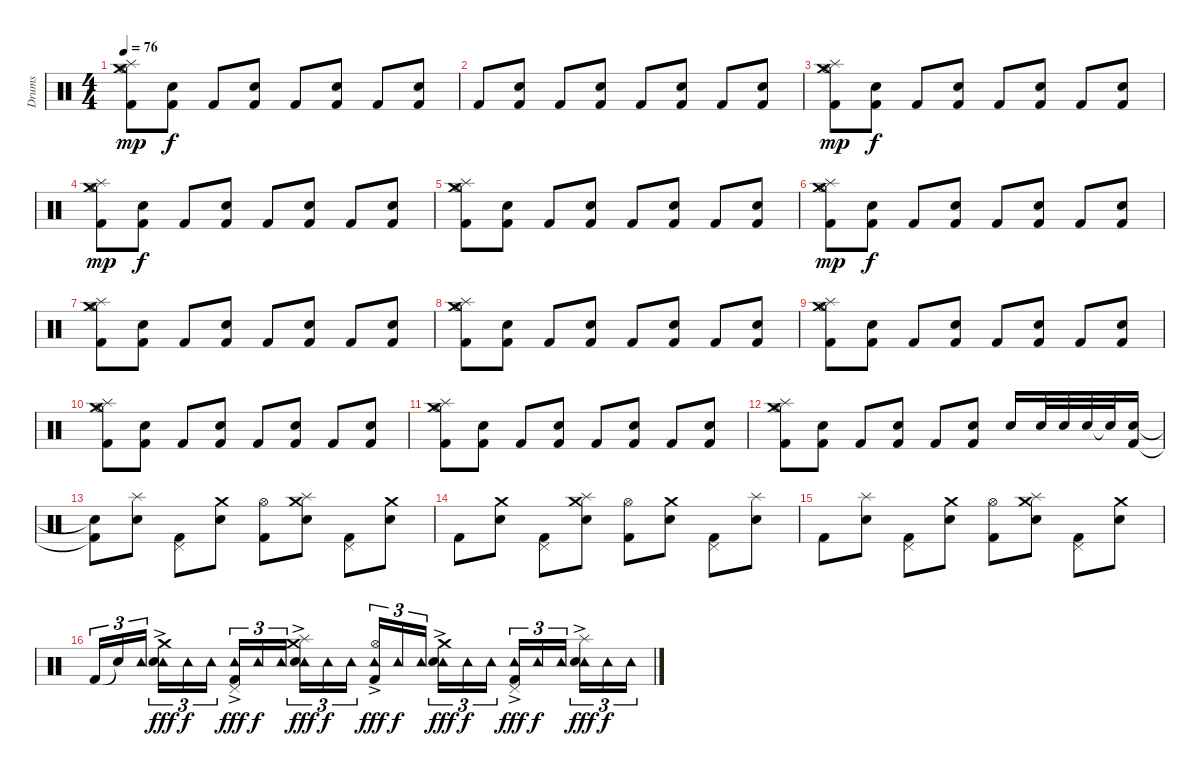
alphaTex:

\track ("Drums" "Drums") {instrument percussion}
\staff {score}
\articulation defaults
\ts (4 4)
\tempo 76
\clef neutral
\ks c
("Kick (hit) 2" "Splash (hit)" "Crash medium (hit)" "Hi-Hat (open)").8{dy mp} ("Kick (hit) 2" "Snare (hit) 2").8{dy f} "Kick (hit) 2".8 ("Kick (hit) 2" "Snare (hit) 2").8 "Kick (hit) 2".8 ("Kick (hit) 2" "Snare (hit) 2").8 "Kick (hit) 2".8 ("Kick (hit) 2" "Snare (hit) 2").8 |
"Kick (hit) 2".8 ("Kick (hit) 2" "Snare (hit) 2").8 "Kick (hit) 2".8 ("Kick (hit) 2" "Snare (hit) 2").8 "Kick (hit) 2".8 ("Kick (hit) 2" "Snare (hit) 2").8 "Kick (hit) 2".8 ("Kick (hit) 2" "Snare (hit) 2").8 |
("Kick (hit) 2" "Splash (hit)" "Crash medium (hit)" "Hi-Hat (open)").8{dy mp} ("Kick (hit) 2" "Snare (hit) 2").8{dy f} "Kick (hit) 2".8 ("Kick (hit) 2" "Snare (hit) 2").8 "Kick (hit) 2".8 ("Kick (hit) 2" "Snare (hit) 2").8 "Kick (hit) 2".8 ("Kick (hit) 2" "Snare (hit) 2").8 |
("Kick (hit) 2" "Splash (hit)" "Crash medium (hit)" "Hi-Hat (open)").8{dy mp} ("Kick (hit) 2" "Snare (hit) 2").8{dy f} "Kick (hit) 2".8 ("Kick (hit) 2" "Snare (hit) 2").8 "Kick (hit) 2".8 ("Kick (hit) 2" "Snare (hit) 2").8 "Kick (hit) 2".8 ("Kick (hit) 2" "Snare (hit) 2").8 |
("Kick (hit) 2" "Splash (hit)" "Crash medium (hit)" "Hi-Hat (open)").8 ("Kick (hit) 2" "Snare (hit) 2").8 "Kick (hit) 2".8 ("Kick (hit) 2" "Snare (hit) 2").8 "Kick (hit) 2".8 ("Kick (hit) 2" "Snare (hit) 2").8 "Kick (hit) 2".8 ("Kick (hit) 2" "Snare (hit) 2").8 |
("Kick (hit) 2" "Splash (hit)" "Crash medium (hit)" "Hi-Hat (open)").8{dy mp} ("Kick (hit) 2" "Snare (hit) 2").8{dy f} "Kick (hit) 2".8 ("Kick (hit) 2" "Snare (hit) 2").8 "Kick (hit) 2".8 ("Kick (hit) 2" "Snare (hit) 2").8 "Kick (hit) 2".8 ("Kick (hit) 2" "Snare (hit) 2").8 |
("Kick (hit) 2" "Splash (hit)" "Crash medium (hit)" "Hi-Hat (open)").8 ("Kick (hit) 2" "Snare (hit) 2").8 "Kick (hit) 2".8 ("Kick (hit) 2" "Snare (hit) 2").8 "Kick (hit) 2".8 ("Kick (hit) 2" "Snare (hit) 2").8 "Kick (hit) 2".8 ("Kick (hit) 2" "Snare (hit) 2").8 |
("Kick (hit) 2" "Splash (hit)" "Crash medium (hit)" "Hi-Hat (open)").8 ("Kick (hit) 2" "Snare (hit) 2").8 "Kick (hit) 2".8 ("Kick (hit) 2" "Snare (hit) 2").8 "Kick (hit) 2".8 ("Kick (hit) 2" "Snare (hit) 2").8 "Kick (hit) 2".8 ("Kick (hit) 2" "Snare (hit) 2").8 |
("Kick (hit) 2" "Splash (hit)" "Crash medium (hit)" "Hi-Hat (open)").8 ("Kick (hit) 2" "Snare (hit) 2").8 "Kick (hit) 2".8 ("Kick (hit) 2" "Snare (hit) 2").8 "Kick (hit) 2".8 ("Kick (hit) 2" "Snare (hit) 2").8 "Kick (hit) 2".8 ("Kick (hit) 2" "Snare (hit) 2").8 |
("Kick (hit) 2" "Splash (hit)" "Crash medium (hit)" "Hi-Hat (open)").8 ("Kick (hit) 2" "Snare (hit) 2").8 "Kick (hit) 2".8 ("Kick (hit) 2" "Snare (hit) 2").8 "Kick (hit) 2".8 ("Kick (hit) 2" "Snare (hit) 2").8 "Kick (hit) 2".8 ("Kick (hit) 2" "Snare (hit) 2").8 |
("Kick (hit) 2" "Splash (hit)" "Crash medium (hit)" "Hi-Hat (open)").8 ("Kick (hit) 2" "Snare (hit) 2").8 "Kick (hit) 2".8 ("Kick (hit) 2" "Snare (hit) 2").8 "Kick (hit) 2".8 ("Kick (hit) 2" "Snare (hit) 2").8 "Kick (hit) 2".8 ("Kick (hit) 2" "Snare (hit) 2").8 |
("Kick (hit) 2" "Splash (hit)" "Crash medium (hit)" "Hi-Hat (open)").8 ("Kick (hit) 2" "Snare (hit) 2").8 "Kick (hit) 2".8 ("Kick (hit) 2" "Snare (hit) 2").8 "Kick (hit) 2".8 ("Kick (hit) 2" "Snare (hit) 2").8 "Snare (hit) 2".16 "Snare (hit) 2".32 "Snare (hit) 2".32 "Snare (hit) 2".32 "Snare (hit)"{t}.32 ("Kick (hit) 2" "Snare (hit) 2").16 |
("Kick (hit) 2"{t} "Snare (hit)"{t}).8 ("Snare (hit) 2" "Splash (hit)").8 ("Kick (hit) 2" "Pedal Hi-Hat (hit)").8 ("Snare (hit) 2" "Crash medium (hit)").8 ("Kick (hit) 2" "Hi-Hat (open)").8 ("Snare (hit) 2" "Crash medium (hit)" "Splash (hit)").8 ("Kick (hit) 2" "Pedal Hi-Hat (hit)").8 ("Snare (hit) 2" "Crash medium (hit)").8 |
"Kick (hit) 2".8 ("Snare (hit) 2" "Crash medium (hit)").8 ("Kick (hit) 2" "Pedal Hi-Hat (hit)").8 ("Snare (hit) 2" "Splash (hit)" "Crash medium (hit)").8 ("Kick (hit) 2" "Hi-Hat (open)").8 ("Snare (hit) 2" "Crash medium (hit)").8 ("Kick (hit) 2" "Pedal Hi-Hat (hit)").8 ("Snare (hit) 2" "Splash (hit)").8 |
"Kick (hit) 2".8 ("Snare (hit) 2" "Splash (hit)").8 ("Kick (hit) 2" "Pedal Hi-Hat (hit)").8 ("Snare (hit) 2" "Crash medium (hit)").8 ("Kick (hit) 2" "Hi-Hat (open)").8 ("Snare (hit) 2" "Crash medium (hit)" "Splash (hit)").8 ("Kick (hit) 2" "Pedal Hi-Hat (hit)").8 ("Snare (hit) 2" "Crash medium (hit)").8 |
"Kick (hit) 2".16{tu (3 2)} "Snare (hit)"{t}.16{tu (3 2)} "Tambourine (hit)".16{tu (3 2)} ("Tambourine (hit)"{ac} "Snare (hit) 2" "Crash medium (hit)").16{tu (3 2) dy fff} "Tambourine (hit)".16{tu (3 2) dy f} "Tambourine (hit)".16{tu (3 2)} ("Tambourine (hit)"{ac} "Kick (hit) 2" "Pedal Hi-Hat (hit)").16{tu (3 2) dy fff} "Tambourine (hit)".16{tu (3 2) dy f} "Tambourine (hit)".16{tu (3 2)} ("Tambourine (hit)"{ac} "Snare (hit) 2" "Splash (hit)" "Crash medium (hit)").16{tu (3 2) dy fff} "Tambourine (hit)".16{tu (3 2) dy f} "Tambourine (hit)".16{tu (3 2)} ("Tambourine (hit)"{ac} "Kick (hit) 2" "Hi-Hat (open)").16{tu (3 2) dy fff} "Tambourine (hit)".16{tu (3 2) dy f} "Tambourine (hit)".16{tu (3 2)} ("Tambourine (hit)"{ac} "Snare (hit) 2" "Crash medium (hit)").16{tu (3 2) dy fff} "Tambourine (hit)".16{tu (3 2) dy f} "Tambourine (hit)".16{tu (3 2)} ("Tambourine (hit)"{ac} "Kick (hit) 2" "Pedal Hi-Hat (hit)").16{tu (3 2) dy fff} "Tambourine (hit)".16{tu (3 2) dy f} "Tambourine (hit)".16{tu (3 2)} ("Tambourine (hit)"{ac} "Snare (hit) 2" "Splash (hit)").16{tu (3 2) dy fff} "Tambourine (hit)".16{tu (3 2) dy f} "Tambourine (hit)".16{tu (3 2)}
